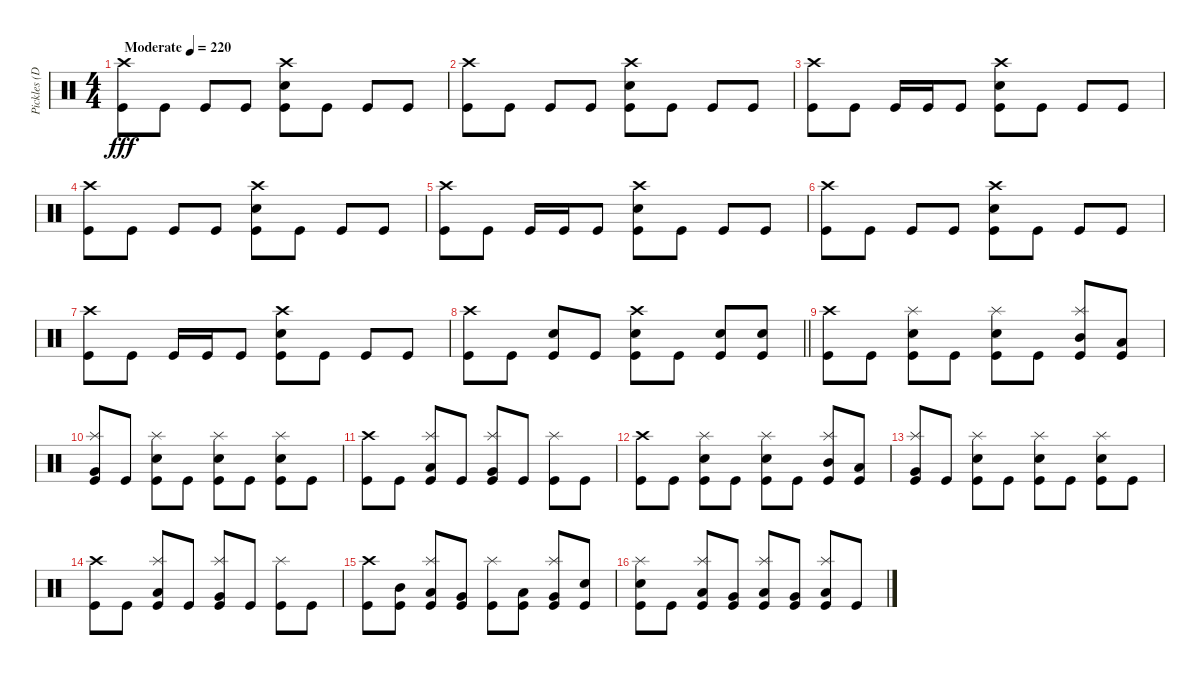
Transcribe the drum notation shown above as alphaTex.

\track ("Pickles (Drums)" "Pickles (D") {instrument percussion}
\staff {score}
\articulation defaults
\ts (4 4)
\tempo (220 "Moderate")
\clef neutral
\ks c
("Crash high (hit)" "Kick (hit)").8{dy fff} "Kick (hit)".8 "Kick (hit)".8 "Kick (hit)".8 ("Crash high (hit)" "Electric Snare (hit)" "Kick (hit)").8 "Kick (hit)".8 "Kick (hit)".8 "Kick (hit)".8 |
("Crash high (hit)" "Kick (hit)").8 "Kick (hit)".8 "Kick (hit)".8 "Kick (hit)".8 ("Crash high (hit)" "Electric Snare (hit)" "Kick (hit)").8 "Kick (hit)".8 "Kick (hit)".8 "Kick (hit)".8 |
("Crash high (hit)" "Kick (hit)").8 "Kick (hit)".8 "Kick (hit)".16 "Kick (hit)".16 "Kick (hit)".8 ("Crash high (hit)" "Electric Snare (hit)" "Kick (hit)").8 "Kick (hit)".8 "Kick (hit)".8 "Kick (hit)".8 |
("Crash high (hit)" "Kick (hit)").8 "Kick (hit)".8 "Kick (hit)".8 "Kick (hit)".8 ("Crash high (hit)" "Electric Snare (hit)" "Kick (hit)").8 "Kick (hit)".8 "Kick (hit)".8 "Kick (hit)".8 |
("Crash high (hit)" "Kick (hit)").8 "Kick (hit)".8 "Kick (hit)".16 "Kick (hit)".16 "Kick (hit)".8 ("Crash high (hit)" "Electric Snare (hit)" "Kick (hit)").8 "Kick (hit)".8 "Kick (hit)".8 "Kick (hit)".8 |
("Crash high (hit)" "Kick (hit)").8 "Kick (hit)".8 "Kick (hit)".8 "Kick (hit)".8 ("Crash high (hit)" "Electric Snare (hit)" "Kick (hit)").8 "Kick (hit)".8 "Kick (hit)".8 "Kick (hit)".8 |
("Crash high (hit)" "Kick (hit)").8 "Kick (hit)".8 "Kick (hit)".16 "Kick (hit)".16 "Kick (hit)".8 ("Crash high (hit)" "Electric Snare (hit)" "Kick (hit)").8 "Kick (hit)".8 "Kick (hit)".8 "Kick (hit)".8 |
\barLineRight lightlight
("Crash high (hit)" "Kick (hit)").8 "Kick (hit)".8 ("Electric Snare (hit)" "Kick (hit)").8 "Kick (hit)".8 ("Crash high (hit)" "Electric Snare (hit)" "Kick (hit)").8 "Kick (hit)".8 ("Electric Snare (hit)" "Kick (hit)").8 ("Electric Snare (hit)" "Kick (hit)").8 |
("Crash high (hit)" "Kick (hit)").8 "Kick (hit)".8 ("Splash (hit)" "Electric Snare (hit)" "Kick (hit)").8 "Kick (hit)".8 ("Splash (hit)" "Electric Snare (hit)" "Kick (hit)").8 "Kick (hit)".8 ("Splash (hit)" "Mid Tom (hit)" "Kick (hit)").8 ("Low Tom (hit)" "Kick (hit)").8 |
("Splash (hit)" "Very Low Tom (hit)" "Kick (hit)").8 "Kick (hit)".8 ("Splash (hit)" "Electric Snare (hit)" "Kick (hit)").8 "Kick (hit)".8 ("Splash (hit)" "Electric Snare (hit)" "Kick (hit)").8 "Kick (hit)".8 ("Splash (hit)" "Electric Snare (hit)" "Kick (hit)").8 "Kick (hit)".8 |
("Crash high (hit)" "Kick (hit)").8 "Kick (hit)".8 ("Splash (hit)" "Low Tom (hit)" "Kick (hit)").8 "Kick (hit)".8 ("Splash (hit)" "Very Low Tom (hit)" "Kick (hit)").8 "Kick (hit)".8 ("Splash (hit)" "Kick (hit)").8 "Kick (hit)".8 |
("Crash high (hit)" "Kick (hit)").8 "Kick (hit)".8 ("Splash (hit)" "Electric Snare (hit)" "Kick (hit)").8 "Kick (hit)".8 ("Splash (hit)" "Electric Snare (hit)" "Kick (hit)").8 "Kick (hit)".8 ("Splash (hit)" "Mid Tom (hit)" "Kick (hit)").8 ("Low Tom (hit)" "Kick (hit)").8 |
("Splash (hit)" "Very Low Tom (hit)" "Kick (hit)").8 "Kick (hit)".8 ("Splash (hit)" "Electric Snare (hit)" "Kick (hit)").8 "Kick (hit)".8 ("Splash (hit)" "Electric Snare (hit)" "Kick (hit)").8 "Kick (hit)".8 ("Splash (hit)" "Electric Snare (hit)" "Kick (hit)").8 "Kick (hit)".8 |
("Crash high (hit)" "Kick (hit)").8 "Kick (hit)".8 ("Splash (hit)" "Low Tom (hit)" "Kick (hit)").8 "Kick (hit)".8 ("Splash (hit)" "Very Low Tom (hit)" "Kick (hit)").8 "Kick (hit)".8 ("Splash (hit)" "Kick (hit)").8 "Kick (hit)".8 |
("Crash high (hit)" "Kick (hit)").8 ("Mid Tom (hit)" "Kick (hit)").8 ("Splash (hit)" "Low Tom (hit)" "Kick (hit)").8 ("Very Low Tom (hit)" "Kick (hit)").8 ("Splash (hit)" "Kick (hit)").8 ("Low Tom (hit)" "Kick (hit)").8 ("Splash (hit)" "Very Low Tom (hit)" "Kick (hit)").8 ("Electric Snare (hit)" "Kick (hit)").8 |
("Splash (hit)" "Electric Snare (hit)" "Kick (hit)").8 "Kick (hit)".8 ("Splash (hit)" "Low Tom (hit)" "Kick (hit)").8 ("Very Low Tom (hit)" "Kick (hit)").8 ("Splash (hit)" "Low Floor Tom (hit)" "Kick (hit)").8 ("Very Low Tom (hit)" "Kick (hit)").8 ("Splash (hit)" "Low Floor Tom (hit)" "Kick (hit)").8 "Kick (hit)".8
